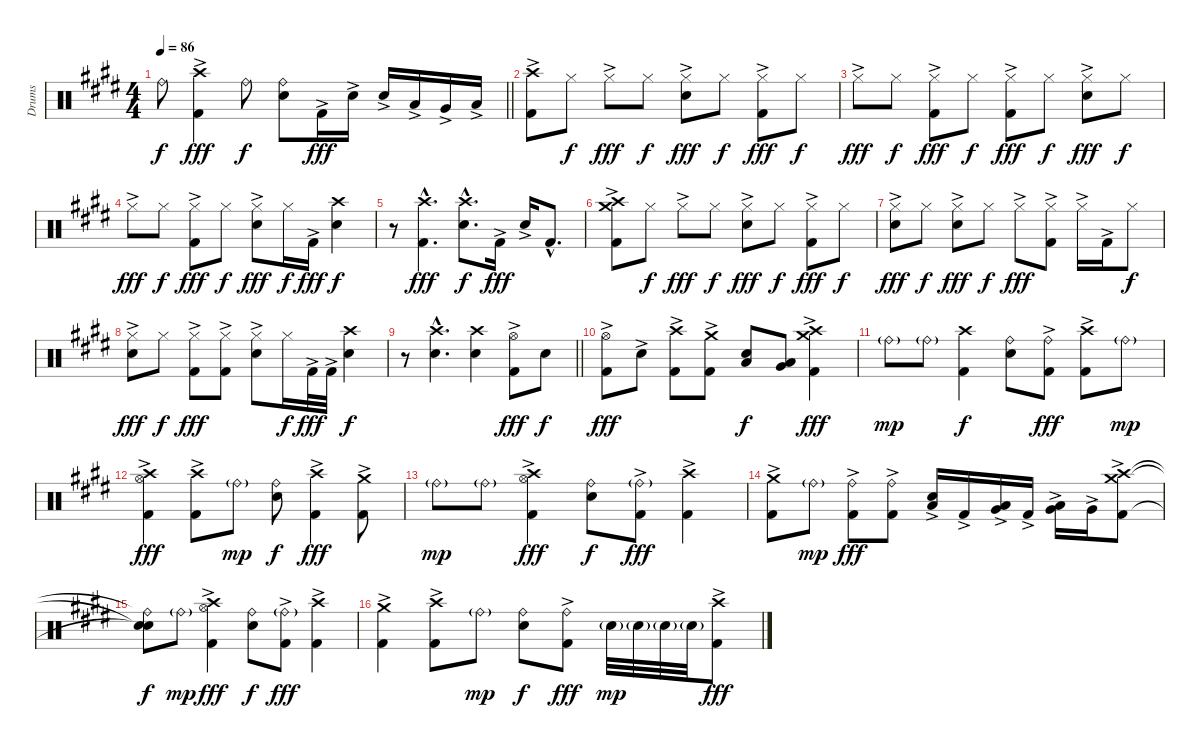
\track ("Drums" "Drums") {instrument percussion}
\staff {score}
\articulation defaults
\ts (4 4)
\tempo 86
\clef neutral
\barLineRight lightlight
\ks c#minor "Ride (bell)".8{dy f}
("Crash high (hit)" "Kick (hit) 2"{ac}).4{dy fff} "Ride (bell)".8{dy f} ("Ride (bell)" "Snare (hit) 2").8 "Kick (hit) 2"{ac}.16{dy fff} "Snare (hit) 2"{ac}.16 "Snare (hit) 2"{ac}.16 "Low Tom (hit)"{ac}.16 "Very Low Tom (hit)"{ac}.16 "Low Floor Tom (hit)"{ac}.16 |
("Crash high (hit)" "Kick (hit) 2"{ac}).8 "Hi-Hat (closed)".8{dy f} "Hi-Hat (closed)"{ac}.8{dy fff} "Hi-Hat (closed)".8{dy f} ("Hi-Hat (closed)"{ac} "Snare (hit) 2").8{dy fff} "Hi-Hat (closed)".8{dy f} ("Hi-Hat (closed)"{ac} "Kick (hit) 2"{ac}).8{dy fff} "Hi-Hat (closed)".8{dy f} |
"Hi-Hat (closed)"{ac}.8{dy fff} "Hi-Hat (closed)".8{dy f} ("Hi-Hat (closed)"{ac} "Kick (hit) 2"{ac}).8{dy fff} "Hi-Hat (closed)".8{dy f} ("Hi-Hat (closed)"{ac} "Kick (hit) 2"{ac}).8{dy fff} "Hi-Hat (closed)".8{dy f} ("Hi-Hat (closed)"{ac} "Snare (hit) 2").8{dy fff} "Hi-Hat (closed)".8{dy f} |
"Hi-Hat (closed)"{ac}.8{dy fff} "Hi-Hat (closed)".8{dy f} ("Hi-Hat (closed)"{ac} "Kick (hit) 2"{ac}).8{dy fff} "Hi-Hat (closed)".8{dy f} ("Hi-Hat (closed)"{ac} "Snare (hit) 2").8{dy fff} "Hi-Hat (closed)".16{dy f} "Kick (hit) 2"{ac}.16{dy fff} ("Crash high (hit)" "Snare (hit) 2").4{dy f} |
r.8 ("Crash high (hit)"{hac} "Kick (hit) 2"{hac}).4{d dy fff} ("Crash high (hit)"{hac} "Snare (hit) 2"{hac}).8{d dy f} "Kick (hit) 2"{ac}.16{dy fff} "Snare (hit) 2"{ac}.16 "Kick (hit) 2"{hac}.8{d} |
("Crash high (hit)" "Crash medium (hit)" "Kick (hit) 2"{ac}).8 "Hi-Hat (closed)".8{dy f} "Hi-Hat (closed)"{ac}.8{dy fff} "Hi-Hat (closed)".8{dy f} ("Hi-Hat (closed)"{ac} "Snare (hit) 2").8{dy fff} "Hi-Hat (closed)".8{dy f} ("Hi-Hat (closed)"{ac} "Kick (hit) 2"{ac}).8{dy fff} "Hi-Hat (closed)".8{dy f} |
("Hi-Hat (closed)"{ac} "Snare (hit) 2").8{dy fff} "Hi-Hat (closed)".8{dy f} ("Hi-Hat (closed)"{ac} "Snare (hit) 2").8{dy fff} "Hi-Hat (closed)".8{dy f} "Hi-Hat (closed)"{ac}.8{dy fff} ("Hi-Hat (closed)" "Kick (hit) 2"{ac}).8 "Hi-Hat (closed)"{ac}.16 "Kick (hit) 2"{ac}.16 "Hi-Hat (closed)".8{dy f} |
("Hi-Hat (closed)"{ac} "Snare (hit) 2").8{dy fff} "Hi-Hat (closed)".8{dy f} ("Hi-Hat (closed)"{ac} "Kick (hit) 2"{ac}).8{dy fff} ("Hi-Hat (closed)" "Kick (hit) 2"{ac}).8 ("Hi-Hat (closed)"{ac} "Snare (hit) 2").8 "Hi-Hat (closed)".16{dy f} "Kick (hit) 2"{ac}.32{dy fff} "Kick (hit) 2"{ac}.32 ("Crash high (hit)" "Snare (hit) 2").4{dy f} |
\barLineRight lightlight
r.8 ("Crash high (hit)"{hac} "Snare (hit) 2"{hac}).4{d} ("Crash high (hit)" "Snare (hit) 2").4 ("Hi-Hat (open)"{ac} "Kick (hit) 2"{ac}).8{dy fff} "Snare (hit) 2".8{dy f} |
("Hi-Hat (open)"{ac} "Kick (hit) 2"{ac}).8{dy fff} "Snare (hit) 2"{ac}.8 ("Crash high (hit)" "Kick (hit) 2"{ac}).8 ("Crash medium (hit)" "Kick (hit) 2"{ac}).8 ("Snare (hit) 2" "Low Tom (hit)").8{dy f} ("Low Tom (hit)" "Very Low Tom (hit)").8 ("Crash high (hit)" "Crash medium (hit)" "Kick (hit) 2"{ac}).4{dy fff} |
"Ride (bell)"{g}.8{dy mp} "Ride (bell)"{g}.8 ("Crash high (hit)" "Kick (hit) 2").4{dy f} ("Ride (bell)" "Snare (hit) 2").8 ("Ride (bell)" "Kick (hit) 2"{ac}).8{dy fff} ("Crash high (hit)" "Kick (hit) 2"{ac}).8 "Ride (bell)"{g}.8{dy mp} |
("Crash high (hit)" "Hi-Hat (open)" "Kick (hit) 2"{ac}).4{dy fff} ("Crash high (hit)" "Kick (hit) 2"{ac}).8 "Ride (bell)"{g}.8{dy mp} ("Ride (bell)" "Snare (hit) 2").8{dy f} ("Crash high (hit)" "Kick (hit) 2"{ac}).4{dy fff} ("Crash medium (hit)" "Kick (hit) 2"{ac}).8 |
"Ride (bell)"{g}.8{dy mp} "Ride (bell)"{g}.8 ("Crash high (hit)" "Hi-Hat (open)" "Kick (hit) 2"{ac}).4{dy fff} ("Ride (bell)" "Snare (hit) 2").8{dy f} ("Ride (bell)"{g} "Kick (hit) 2"{ac}).8{dy fff} ("Crash high (hit)" "Kick (hit) 2"{ac}).4 |
("Crash medium (hit)" "Kick (hit) 2"{ac}).8 "Ride (bell)"{g}.8{dy mp} ("Ride (bell)" "Kick (hit) 2"{ac}).8{dy fff} ("Ride (bell)" "Kick (hit) 2"{ac}).8 ("Snare (hit) 2"{ac} "Low Tom (hit)"{ac}).16 "Kick (hit) 2"{ac}.16 ("Low Tom (hit)"{ac} "Very Low Tom (hit)"{ac}).16 "Kick (hit) 2"{ac}.16 ("Very Low Tom (hit)"{ac} "Low Floor Tom (hit)"{ac}).16 "Very Low Tom (hit)"{ac}.16 ("Crash high (hit)" "Crash medium (hit)" "Kick (hit) 2"{ac}).8 |
("Ride (bell)"{t} "Snare (hit)"{t} "Snare (hit)"{t}).8{dy f} "Ride (bell)"{g}.8{dy mp} ("Crash high (hit)" "Hi-Hat (open)" "Kick (hit) 2"{ac}).4{dy fff} ("Ride (bell)" "Snare (hit) 2").8{dy f} ("Ride (bell)"{g} "Kick (hit) 2"{ac}).8{dy fff} ("Crash high (hit)" "Kick (hit) 2"{ac}).4 |
("Crash medium (hit)" "Kick (hit) 2"{ac}).4 ("Crash high (hit)" "Kick (hit) 2"{ac}).8 "Ride (bell)"{g}.8{dy mp} ("Ride (bell)" "Snare (hit) 2").8{dy f} ("Ride (bell)" "Kick (hit) 2"{ac}).8{dy fff} "Snare (hit) 2"{g}.32{dy mp} "Snare (hit) 2"{g}.32 "Snare (hit) 2"{g}.32 "Snare (hit) 2"{g}.32 ("Crash high (hit)" "Kick (hit) 2"{ac}).8{dy fff}
